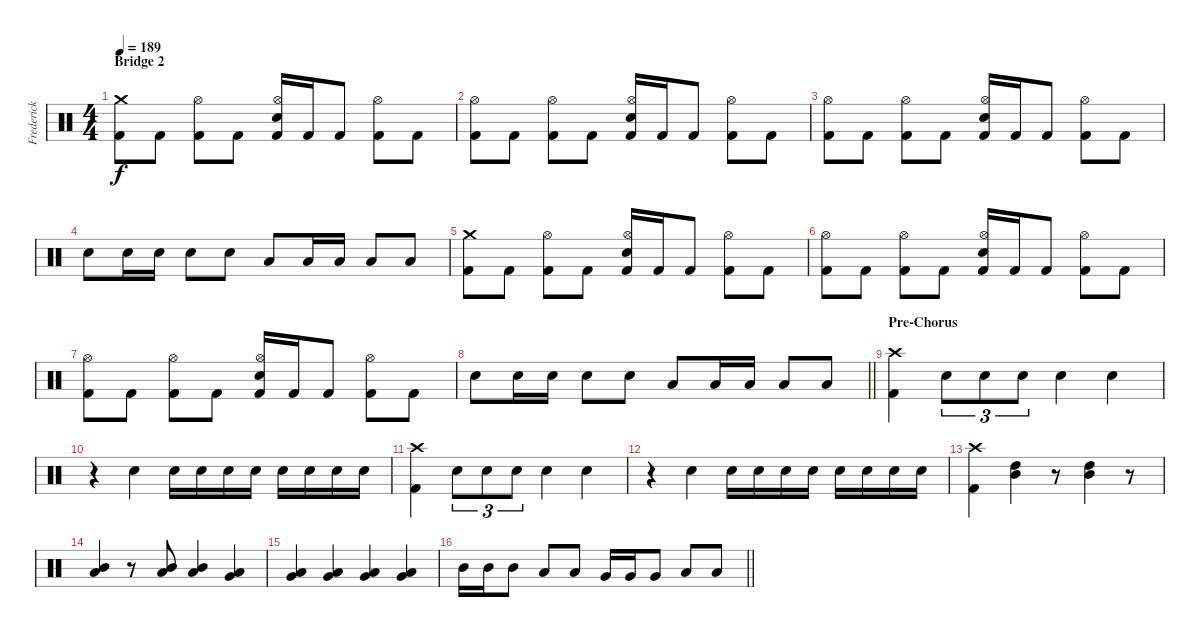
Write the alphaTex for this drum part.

\track ("Frederick Ehmke" "Frederick ") {instrument percussion}
\staff {score}
\articulation defaults
\ts (4 4)
\section ("" "Bridge 2")
\tempo 189
\clef neutral
\ks c
("Kick (hit) 2" "Crash medium (hit)").8{dy f} "Kick (hit) 2".8 ("Kick (hit) 2" "Hi-Hat (open)").8 "Kick (hit) 2".8 ("Electric Snare (hit)" "Kick (hit) 2" "Hi-Hat (open)").16 "Kick (hit) 2".16 "Kick (hit) 2".8 ("Kick (hit) 2" "Hi-Hat (open)").8 "Kick (hit) 2".8 |
("Kick (hit) 2" "Hi-Hat (open)").8 "Kick (hit) 2".8 ("Kick (hit) 2" "Hi-Hat (open)").8 "Kick (hit) 2".8 ("Electric Snare (hit)" "Kick (hit) 2" "Hi-Hat (open)").16 "Kick (hit) 2".16 "Kick (hit) 2".8 ("Kick (hit) 2" "Hi-Hat (open)").8 "Kick (hit) 2".8 |
("Kick (hit) 2" "Hi-Hat (open)").8 "Kick (hit) 2".8 ("Kick (hit) 2" "Hi-Hat (open)").8 "Kick (hit) 2".8 ("Electric Snare (hit)" "Kick (hit) 2" "Hi-Hat (open)").16 "Kick (hit) 2".16 "Kick (hit) 2".8 ("Kick (hit) 2" "Hi-Hat (open)").8 "Kick (hit) 2".8 |
"Electric Snare (hit)".8 "Electric Snare (hit)".16 "Electric Snare (hit)".16 "Electric Snare (hit)".8 "Electric Snare (hit)".8 "Low Tom (hit)".8 "Low Tom (hit)".16 "Low Tom (hit)".16 "Low Tom (hit)".8 "Low Tom (hit)".8 |
("Kick (hit) 2" "Crash medium (hit)").8 "Kick (hit) 2".8 ("Kick (hit) 2" "Hi-Hat (open)").8 "Kick (hit) 2".8 ("Electric Snare (hit)" "Kick (hit) 2" "Hi-Hat (open)").16 "Kick (hit) 2".16 "Kick (hit) 2".8 ("Kick (hit) 2" "Hi-Hat (open)").8 "Kick (hit) 2".8 |
("Kick (hit) 2" "Hi-Hat (open)").8 "Kick (hit) 2".8 ("Kick (hit) 2" "Hi-Hat (open)").8 "Kick (hit) 2".8 ("Electric Snare (hit)" "Kick (hit) 2" "Hi-Hat (open)").16 "Kick (hit) 2".16 "Kick (hit) 2".8 ("Kick (hit) 2" "Hi-Hat (open)").8 "Kick (hit) 2".8 |
("Kick (hit) 2" "Hi-Hat (open)").8 "Kick (hit) 2".8 ("Kick (hit) 2" "Hi-Hat (open)").8 "Kick (hit) 2".8 ("Electric Snare (hit)" "Kick (hit) 2" "Hi-Hat (open)").16 "Kick (hit) 2".16 "Kick (hit) 2".8 ("Kick (hit) 2" "Hi-Hat (open)").8 "Kick (hit) 2".8 |
\barLineRight lightlight "Electric Snare (hit)".8 "Electric Snare (hit)".16 "Electric Snare (hit)".16 "Electric Snare (hit)".8 "Electric Snare (hit)".8 "Low Tom (hit)".8 "Low Tom (hit)".16 "Low Tom (hit)".16 "Low Tom (hit)".8 "Low Tom (hit)".8
|
\section ("" "Pre-Chorus")
("Kick (hit) 2" "Crash high (hit)").4 "Electric Snare (hit)".8{tu (3 2)} "Electric Snare (hit)".8{tu (3 2)} "Electric Snare (hit)".8{tu (3 2)} "Electric Snare (hit)".4 "Electric Snare (hit)".4 |
r.4 "Electric Snare (hit)".4 "Electric Snare (hit)".16{volume 5} "Electric Snare (hit)".16 "Electric Snare (hit)".16 "Electric Snare (hit)".16 "Electric Snare (hit)".16 "Electric Snare (hit)".16 "Electric Snare (hit)".16 "Electric Snare (hit)".16 |
("Kick (hit) 2" "Crash high (hit)").4{volume 14} "Electric Snare (hit)".8{tu (3 2)} "Electric Snare (hit)".8{tu (3 2)} "Electric Snare (hit)".8{tu (3 2)} "Electric Snare (hit)".4 "Electric Snare (hit)".4 |
r.4 "Electric Snare (hit)".4 "Electric Snare (hit)".16{volume 5} "Electric Snare (hit)".16 "Electric Snare (hit)".16 "Electric Snare (hit)".16 "Electric Snare (hit)".16 "Electric Snare (hit)".16 "Electric Snare (hit)".16 "Electric Snare (hit)".16 |
("Kick (hit) 2" "Crash high (hit)").4{volume 14} ("Mid Tom (hit)" "High Tom (hit)").4 r.8 ("Mid Tom (hit)" "High Tom (hit)").4 r.8 |
("Low Tom (hit)" "Mid Tom (hit)").4 r.8 ("Low Tom (hit)" "Mid Tom (hit)").8 ("Low Tom (hit)" "Mid Tom (hit)").4 ("Very Low Tom (hit)" "Low Tom (hit)").4 |
("Low Floor Tom (hit)" "Very Low Tom (hit)").4 ("Low Floor Tom (hit)" "Very Low Tom (hit)").4 ("Low Floor Tom (hit)" "Very Low Tom (hit)").4 ("Low Floor Tom (hit)" "Very Low Tom (hit)").4 |
\barLineRight lightlight "Mid Tom (hit)".16 "Mid Tom (hit)".16 "Mid Tom (hit)".8 "Low Tom (hit)".8 "Low Tom (hit)".8 "Very Low Tom (hit)".16 "Very Low Tom (hit)".16 "Very Low Tom (hit)".8 "Low Floor Tom (hit)".8 "Low Floor Tom (hit)".8
